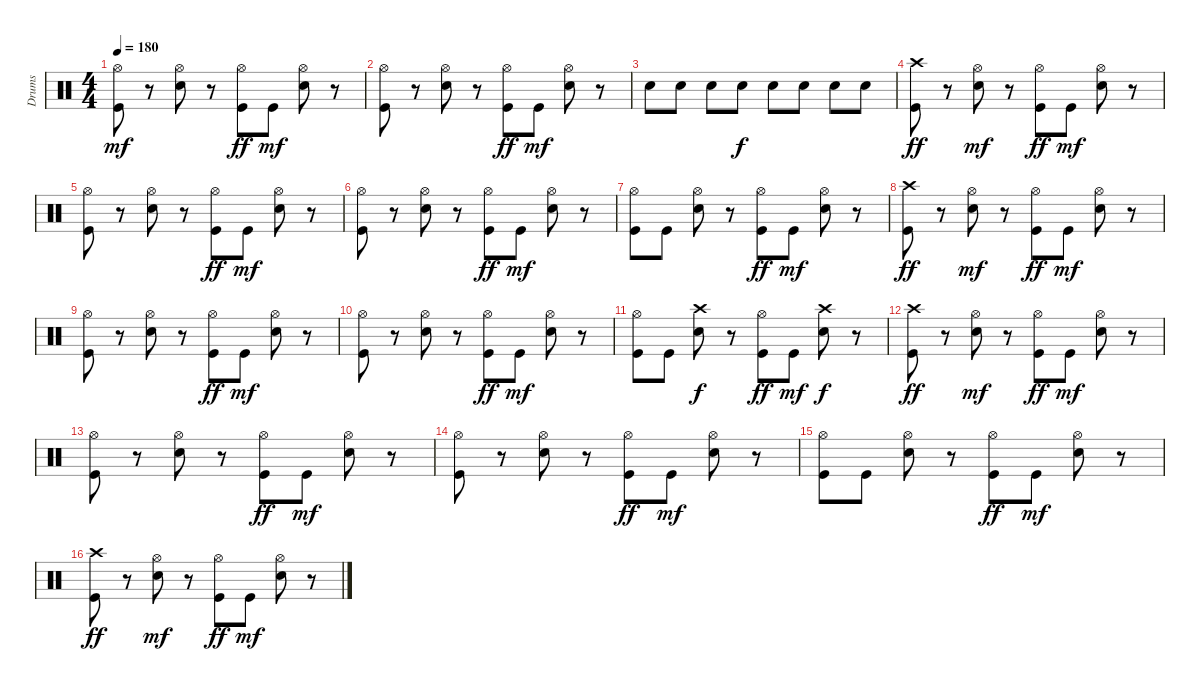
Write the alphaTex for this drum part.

\track ("Drums" "Drums") {instrument percussion}
\staff {score}
\articulation defaults
\ts (4 4)
\tempo 180
\clef neutral
\ks c
("Kick (hit)" "Hi-Hat (open)").8{dy mf} r.8 ("Hi-Hat (open)" "Snare (hit) 2").8 r.8 ("Hi-Hat (open)" "Kick (hit)").8{dy ff} "Kick (hit)".8{dy mf} ("Snare (hit) 2" "Hi-Hat (open)").8 r.8 |
("Kick (hit)" "Hi-Hat (open)").8 r.8 ("Hi-Hat (open)" "Snare (hit) 2").8 r.8 ("Hi-Hat (open)" "Kick (hit)").8{dy ff} "Kick (hit)".8{dy mf} ("Snare (hit) 2" "Hi-Hat (open)").8 r.8 |
"Snare (hit) 2".8 "Snare (hit) 2".8 "Snare (hit) 2".8 "Snare (hit) 2".8{dy f} "Snare (hit) 2".8 "Snare (hit) 2".8 "Snare (hit) 2".8 "Snare (hit) 2".8 |
("Crash high (hit)" "Kick (hit)").8{dy ff} r.8 ("Hi-Hat (open)" "Snare (hit) 2").8{dy mf} r.8 ("Hi-Hat (open)" "Kick (hit)").8{dy ff} "Kick (hit)".8{dy mf} ("Hi-Hat (open)" "Snare (hit) 2").8 r.8 |
("Kick (hit)" "Hi-Hat (open)").8 r.8 ("Hi-Hat (open)" "Snare (hit) 2").8 r.8 ("Hi-Hat (open)" "Kick (hit)").8{dy ff} "Kick (hit)".8{dy mf} ("Snare (hit) 2" "Hi-Hat (open)").8 r.8 |
("Kick (hit)" "Hi-Hat (open)").8 r.8 ("Hi-Hat (open)" "Snare (hit) 2").8 r.8 ("Hi-Hat (open)" "Kick (hit)").8{dy ff} "Kick (hit)".8{dy mf} ("Snare (hit) 2" "Hi-Hat (open)").8 r.8 |
("Kick (hit)" "Hi-Hat (open)").8 "Kick (hit)".8 ("Hi-Hat (open)" "Snare (hit) 2").8 r.8 ("Hi-Hat (open)" "Kick (hit)").8{dy ff} "Kick (hit)".8{dy mf} ("Hi-Hat (open)" "Snare (hit) 2").8 r.8 |
("Crash high (hit)" "Kick (hit)").8{dy ff} r.8 ("Hi-Hat (open)" "Snare (hit) 2").8{dy mf} r.8 ("Hi-Hat (open)" "Kick (hit)").8{dy ff} "Kick (hit)".8{dy mf} ("Hi-Hat (open)" "Snare (hit) 2").8 r.8 |
("Kick (hit)" "Hi-Hat (open)").8 r.8 ("Hi-Hat (open)" "Snare (hit) 2").8 r.8 ("Hi-Hat (open)" "Kick (hit)").8{dy ff} "Kick (hit)".8{dy mf} ("Snare (hit) 2" "Hi-Hat (open)").8 r.8 |
("Kick (hit)" "Hi-Hat (open)").8 r.8 ("Hi-Hat (open)" "Snare (hit) 2").8 r.8 ("Hi-Hat (open)" "Kick (hit)").8{dy ff} "Kick (hit)".8{dy mf} ("Snare (hit) 2" "Hi-Hat (open)").8 r.8 |
("Kick (hit)" "Hi-Hat (open)").8 "Kick (hit)".8 ("Crash high (hit)" "Snare (hit) 2").8{dy f} r.8 ("Hi-Hat (open)" "Kick (hit)").8{dy ff} "Kick (hit)".8{dy mf} ("Crash high (hit)" "Snare (hit) 2").8{dy f} r.8 |
("Crash high (hit)" "Kick (hit)").8{dy ff} r.8 ("Hi-Hat (open)" "Snare (hit) 2").8{dy mf} r.8 ("Hi-Hat (open)" "Kick (hit)").8{dy ff} "Kick (hit)".8{dy mf} ("Hi-Hat (open)" "Snare (hit) 2").8 r.8 |
("Kick (hit)" "Hi-Hat (open)").8 r.8 ("Hi-Hat (open)" "Snare (hit) 2").8 r.8 ("Hi-Hat (open)" "Kick (hit)").8{dy ff} "Kick (hit)".8{dy mf} ("Snare (hit) 2" "Hi-Hat (open)").8 r.8 |
("Kick (hit)" "Hi-Hat (open)").8 r.8 ("Hi-Hat (open)" "Snare (hit) 2").8 r.8 ("Hi-Hat (open)" "Kick (hit)").8{dy ff} "Kick (hit)".8{dy mf} ("Snare (hit) 2" "Hi-Hat (open)").8 r.8 |
("Kick (hit)" "Hi-Hat (open)").8 "Kick (hit)".8 ("Hi-Hat (open)" "Snare (hit) 2").8 r.8 ("Hi-Hat (open)" "Kick (hit)").8{dy ff} "Kick (hit)".8{dy mf} ("Hi-Hat (open)" "Snare (hit) 2").8 r.8 |
("Crash high (hit)" "Kick (hit)").8{dy ff} r.8 ("Hi-Hat (open)" "Snare (hit) 2").8{dy mf} r.8 ("Hi-Hat (open)" "Kick (hit)").8{dy ff} "Kick (hit)".8{dy mf} ("Hi-Hat (open)" "Snare (hit) 2").8 r.8
